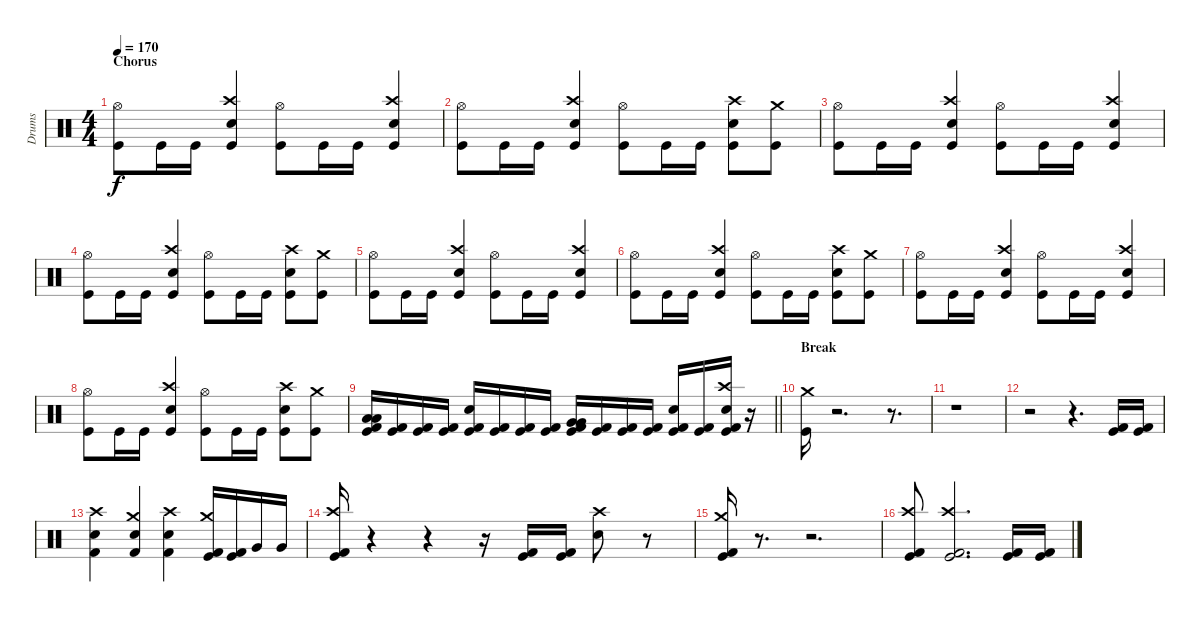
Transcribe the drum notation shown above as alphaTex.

\track ("Drums" "Drums") {instrument percussion}
\staff {score}
\articulation defaults
\ts (4 4)
\section ("" "Chorus")
\tempo 170
\clef neutral
\ks c
("Hi-Hat (open)" "Kick (hit)").8{dy f} "Kick (hit)".16 "Kick (hit)".16 ("Crash high (hit)" "Snare (hit) 2" "Kick (hit)").4 ("Hi-Hat (open)" "Kick (hit)").8 "Kick (hit)".16 "Kick (hit)".16 ("Crash high (hit)" "Snare (hit) 2" "Kick (hit)").4 |
("Hi-Hat (open)" "Kick (hit)").8 "Kick (hit)".16 "Kick (hit)".16 ("Crash high (hit)" "Snare (hit) 2" "Kick (hit)").4 ("Hi-Hat (open)" "Kick (hit)").8 "Kick (hit)".16 "Kick (hit)".16 ("Crash high (hit)" "Snare (hit) 2" "Kick (hit)").8 ("Crash medium (hit)" "Kick (hit)").8 |
("Hi-Hat (open)" "Kick (hit)").8 "Kick (hit)".16 "Kick (hit)".16 ("Crash high (hit)" "Snare (hit) 2" "Kick (hit)").4 ("Hi-Hat (open)" "Kick (hit)").8 "Kick (hit)".16 "Kick (hit)".16 ("Crash high (hit)" "Snare (hit) 2" "Kick (hit)").4 |
("Hi-Hat (open)" "Kick (hit)").8 "Kick (hit)".16 "Kick (hit)".16 ("Crash high (hit)" "Snare (hit) 2" "Kick (hit)").4 ("Hi-Hat (open)" "Kick (hit)").8 "Kick (hit)".16 "Kick (hit)".16 ("Crash high (hit)" "Snare (hit) 2" "Kick (hit)").8 ("Crash medium (hit)" "Kick (hit)").8 |
("Hi-Hat (open)" "Kick (hit)").8 "Kick (hit)".16 "Kick (hit)".16 ("Crash high (hit)" "Snare (hit) 2" "Kick (hit)").4 ("Hi-Hat (open)" "Kick (hit)").8 "Kick (hit)".16 "Kick (hit)".16 ("Crash high (hit)" "Snare (hit) 2" "Kick (hit)").4 |
("Hi-Hat (open)" "Kick (hit)").8 "Kick (hit)".16 "Kick (hit)".16 ("Crash high (hit)" "Snare (hit) 2" "Kick (hit)").4 ("Hi-Hat (open)" "Kick (hit)").8 "Kick (hit)".16 "Kick (hit)".16 ("Crash high (hit)" "Snare (hit) 2" "Kick (hit)").8 ("Crash medium (hit)" "Kick (hit)").8 |
("Hi-Hat (open)" "Kick (hit)").8 "Kick (hit)".16 "Kick (hit)".16 ("Crash high (hit)" "Snare (hit) 2" "Kick (hit)").4 ("Hi-Hat (open)" "Kick (hit)").8 "Kick (hit)".16 "Kick (hit)".16 ("Crash high (hit)" "Snare (hit) 2" "Kick (hit)").4 |
("Hi-Hat (open)" "Kick (hit)").8 "Kick (hit)".16 "Kick (hit)".16 ("Crash high (hit)" "Snare (hit) 2" "Kick (hit)").4 ("Hi-Hat (open)" "Kick (hit)").8 "Kick (hit)".16 "Kick (hit)".16 ("Crash high (hit)" "Snare (hit) 2" "Kick (hit)").8 ("Crash medium (hit)" "Kick (hit)").8 |
\barLineRight lightlight
("Low Tom (hit)" "Low Tom (hit)" "Kick (hit)" "Kick (hit) 2").16 ("Kick (hit)" "Kick (hit) 2").16 ("Kick (hit)" "Kick (hit) 2").16 ("Kick (hit)" "Kick (hit) 2").16 ("Snare (hit) 2" "Kick (hit)" "Kick (hit) 2").16 ("Kick (hit)" "Kick (hit) 2").16 ("Kick (hit)" "Kick (hit) 2").16 ("Kick (hit)" "Kick (hit) 2").16 ("Very Low Tom (hit)" "Very Low Tom (hit)" "Kick (hit)" "Kick (hit) 2").16 ("Kick (hit)" "Kick (hit) 2").16 ("Kick (hit)" "Kick (hit) 2").16 ("Kick (hit)" "Kick (hit) 2").16 ("Snare (hit) 2" "Kick (hit)" "Kick (hit) 2").16 ("Kick (hit)" "Kick (hit) 2").16 ("Crash high (hit)" "Snare (hit) 2" "Kick (hit)" "Kick (hit) 2").16 r.16 |
\section ("" "Break")
("Crash medium (hit)" "Kick (hit)").16 r.2{d} r.8{d} |
r.1 |
r.2 r.4{d} ("Kick (hit)" "Kick (hit) 2").16 ("Kick (hit)" "Kick (hit) 2").16 |
("Crash high (hit)" "Snare (hit) 2" "Kick (hit) 2").4 ("Crash medium (hit)" "Snare (hit) 2" "Kick (hit) 2").4 ("Crash high (hit)" "Snare (hit) 2" "Kick (hit) 2").4 ("Crash medium (hit)" "Kick (hit)" "Kick (hit) 2").16 ("Kick (hit)" "Kick (hit) 2").16 "Very Low Tom (hit)".16 "Very Low Tom (hit)".16 |
("Crash high (hit)" "Kick (hit)" "Kick (hit) 2").16 r.4 r.4 r.16 ("Kick (hit) 2" "Kick (hit)").16 ("Kick (hit) 2" "Kick (hit)").16 ("Crash high (hit)" "Snare (hit) 2").8 r.8 |
("Crash medium (hit)" "Kick (hit) 2" "Kick (hit)").16 r.8{d} r.2{d} |
("Crash high (hit)" "Kick (hit) 2" "Kick (hit)").8 ("Crash high (hit)" "Kick (hit) 2" "Kick (hit)").2{d} ("Kick (hit) 2" "Kick (hit)").16 ("Kick (hit) 2" "Kick (hit)").16
